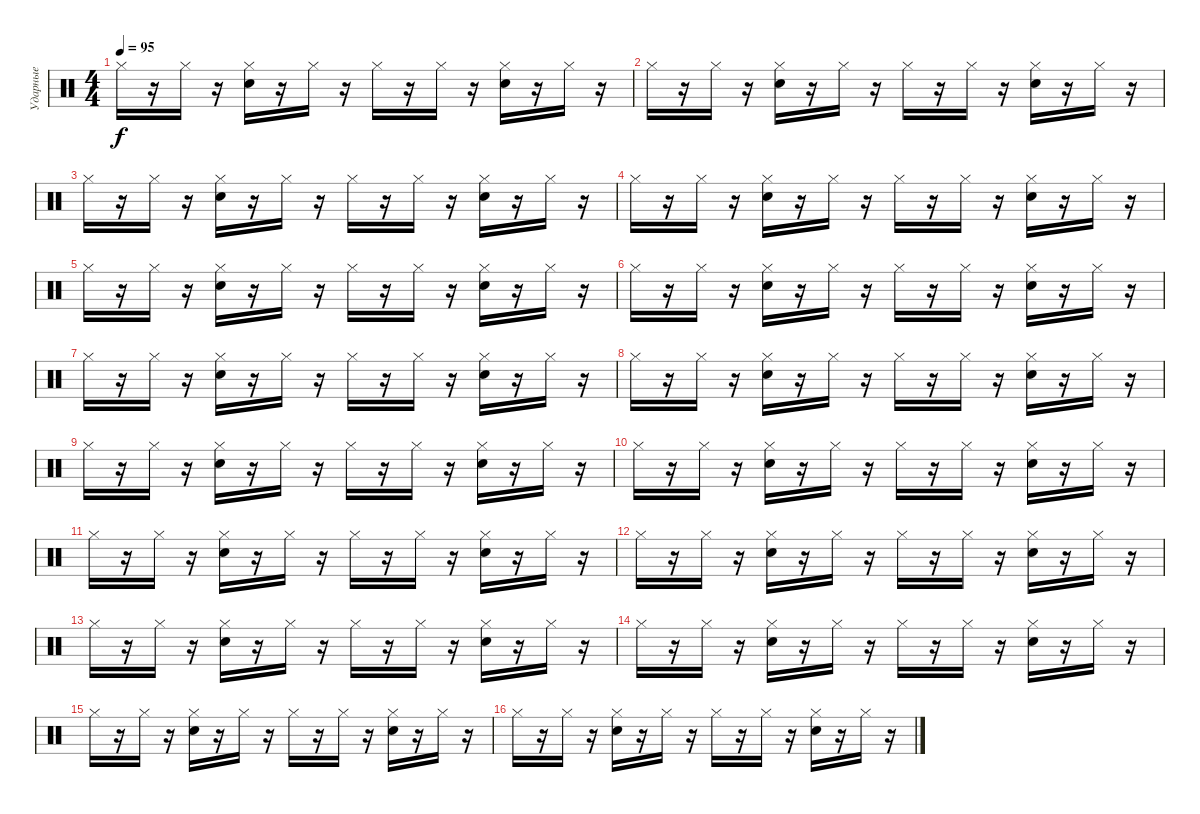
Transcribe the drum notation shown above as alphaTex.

\track ("Ударные" "Ударные") {instrument percussion}
\staff {score}
\articulation defaults
\ts (4 4)
\tempo 95
\clef neutral
\ks c "Hi-Hat (closed)".16{dy f}
r.16 "Hi-Hat (closed)".16 r.16 ("Hi-Hat (closed)" "Electric Snare (hit)").16 r.16 "Hi-Hat (closed)".16 r.16 "Hi-Hat (closed)".16 r.16 "Hi-Hat (closed)".16 r.16 ("Hi-Hat (closed)" "Electric Snare (hit)").16 r.16 "Hi-Hat (closed)".16 r.16 |
"Hi-Hat (closed)".16 r.16 "Hi-Hat (closed)".16 r.16 ("Hi-Hat (closed)" "Electric Snare (hit)").16 r.16 "Hi-Hat (closed)".16 r.16 "Hi-Hat (closed)".16 r.16 "Hi-Hat (closed)".16 r.16 ("Hi-Hat (closed)" "Electric Snare (hit)").16 r.16 "Hi-Hat (closed)".16 r.16 |
"Hi-Hat (closed)".16 r.16 "Hi-Hat (closed)".16 r.16 ("Hi-Hat (closed)" "Electric Snare (hit)").16 r.16 "Hi-Hat (closed)".16 r.16 "Hi-Hat (closed)".16 r.16 "Hi-Hat (closed)".16 r.16 ("Hi-Hat (closed)" "Electric Snare (hit)").16 r.16 "Hi-Hat (closed)".16 r.16 |
"Hi-Hat (closed)".16 r.16 "Hi-Hat (closed)".16 r.16 ("Hi-Hat (closed)" "Electric Snare (hit)").16 r.16 "Hi-Hat (closed)".16 r.16 "Hi-Hat (closed)".16 r.16 "Hi-Hat (closed)".16 r.16 ("Hi-Hat (closed)" "Electric Snare (hit)").16 r.16 "Hi-Hat (closed)".16 r.16 |
"Hi-Hat (closed)".16 r.16 "Hi-Hat (closed)".16 r.16 ("Hi-Hat (closed)" "Electric Snare (hit)").16 r.16 "Hi-Hat (closed)".16 r.16 "Hi-Hat (closed)".16 r.16 "Hi-Hat (closed)".16 r.16 ("Hi-Hat (closed)" "Electric Snare (hit)").16 r.16 "Hi-Hat (closed)".16 r.16 |
"Hi-Hat (closed)".16 r.16 "Hi-Hat (closed)".16 r.16 ("Hi-Hat (closed)" "Electric Snare (hit)").16 r.16 "Hi-Hat (closed)".16 r.16 "Hi-Hat (closed)".16 r.16 "Hi-Hat (closed)".16 r.16 ("Hi-Hat (closed)" "Electric Snare (hit)").16 r.16 "Hi-Hat (closed)".16 r.16 |
"Hi-Hat (closed)".16 r.16 "Hi-Hat (closed)".16 r.16 ("Hi-Hat (closed)" "Electric Snare (hit)").16 r.16 "Hi-Hat (closed)".16 r.16 "Hi-Hat (closed)".16 r.16 "Hi-Hat (closed)".16 r.16 ("Hi-Hat (closed)" "Electric Snare (hit)").16 r.16 "Hi-Hat (closed)".16 r.16 |
"Hi-Hat (closed)".16 r.16 "Hi-Hat (closed)".16 r.16 ("Hi-Hat (closed)" "Electric Snare (hit)").16 r.16 "Hi-Hat (closed)".16 r.16 "Hi-Hat (closed)".16 r.16 "Hi-Hat (closed)".16 r.16 ("Hi-Hat (closed)" "Electric Snare (hit)").16 r.16 "Hi-Hat (closed)".16 r.16 |
"Hi-Hat (closed)".16 r.16 "Hi-Hat (closed)".16 r.16 ("Hi-Hat (closed)" "Electric Snare (hit)").16 r.16 "Hi-Hat (closed)".16 r.16 "Hi-Hat (closed)".16 r.16 "Hi-Hat (closed)".16 r.16 ("Hi-Hat (closed)" "Electric Snare (hit)").16 r.16 "Hi-Hat (closed)".16 r.16 |
"Hi-Hat (closed)".16 r.16 "Hi-Hat (closed)".16 r.16 ("Hi-Hat (closed)" "Electric Snare (hit)").16 r.16 "Hi-Hat (closed)".16 r.16 "Hi-Hat (closed)".16 r.16 "Hi-Hat (closed)".16 r.16 ("Hi-Hat (closed)" "Electric Snare (hit)").16 r.16 "Hi-Hat (closed)".16 r.16 |
"Hi-Hat (closed)".16 r.16 "Hi-Hat (closed)".16 r.16 ("Hi-Hat (closed)" "Electric Snare (hit)").16 r.16 "Hi-Hat (closed)".16 r.16 "Hi-Hat (closed)".16 r.16 "Hi-Hat (closed)".16 r.16 ("Hi-Hat (closed)" "Electric Snare (hit)").16 r.16 "Hi-Hat (closed)".16 r.16 |
"Hi-Hat (closed)".16 r.16 "Hi-Hat (closed)".16 r.16 ("Hi-Hat (closed)" "Electric Snare (hit)").16 r.16 "Hi-Hat (closed)".16 r.16 "Hi-Hat (closed)".16 r.16 "Hi-Hat (closed)".16 r.16 ("Hi-Hat (closed)" "Electric Snare (hit)").16 r.16 "Hi-Hat (closed)".16 r.16 |
"Hi-Hat (closed)".16 r.16 "Hi-Hat (closed)".16 r.16 ("Hi-Hat (closed)" "Electric Snare (hit)").16 r.16 "Hi-Hat (closed)".16 r.16 "Hi-Hat (closed)".16 r.16 "Hi-Hat (closed)".16 r.16 ("Hi-Hat (closed)" "Electric Snare (hit)").16 r.16 "Hi-Hat (closed)".16 r.16 |
"Hi-Hat (closed)".16 r.16 "Hi-Hat (closed)".16 r.16 ("Hi-Hat (closed)" "Electric Snare (hit)").16 r.16 "Hi-Hat (closed)".16 r.16 "Hi-Hat (closed)".16 r.16 "Hi-Hat (closed)".16 r.16 ("Hi-Hat (closed)" "Electric Snare (hit)").16 r.16 "Hi-Hat (closed)".16 r.16 |
"Hi-Hat (closed)".16 r.16 "Hi-Hat (closed)".16 r.16 ("Hi-Hat (closed)" "Electric Snare (hit)").16 r.16 "Hi-Hat (closed)".16 r.16 "Hi-Hat (closed)".16 r.16 "Hi-Hat (closed)".16 r.16 ("Hi-Hat (closed)" "Electric Snare (hit)").16 r.16 "Hi-Hat (closed)".16 r.16 |
"Hi-Hat (closed)".16 r.16 "Hi-Hat (closed)".16 r.16 ("Hi-Hat (closed)" "Electric Snare (hit)").16 r.16 "Hi-Hat (closed)".16 r.16 "Hi-Hat (closed)".16 r.16 "Hi-Hat (closed)".16 r.16 ("Hi-Hat (closed)" "Electric Snare (hit)").16 r.16 "Hi-Hat (closed)".16 r.16
